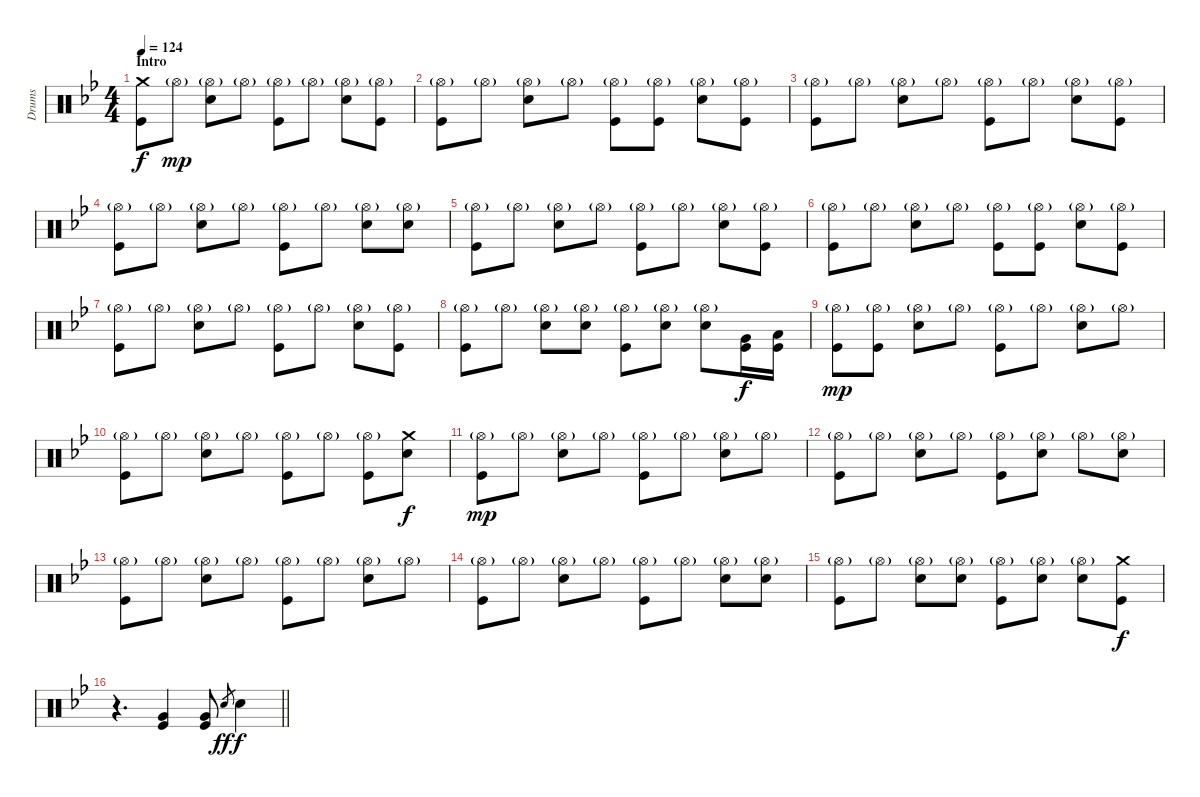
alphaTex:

\track ("Drums" "Drums") {instrument percussion}
\staff {score}
\articulation defaults
\ts (4 4)
\section ("" "Intro")
\tempo 124
\clef neutral
\ks gminor
("Crash medium (hit)" "Kick (hit)").8{dy f} "Hi-Hat (open)"{g}.8{dy mp} ("Hi-Hat (open)"{g} "Snare (hit) 2").8 "Hi-Hat (open)"{g}.8 ("Hi-Hat (open)"{g} "Kick (hit)").8 "Hi-Hat (open)"{g}.8 ("Hi-Hat (open)"{g} "Snare (hit) 2").8 ("Hi-Hat (open)"{g} "Kick (hit)").8 |
("Hi-Hat (open)"{g} "Kick (hit)").8 "Hi-Hat (open)"{g}.8 ("Hi-Hat (open)"{g} "Snare (hit) 2").8 "Hi-Hat (open)"{g}.8 ("Hi-Hat (open)"{g} "Kick (hit)").8 ("Hi-Hat (open)"{g} "Kick (hit)").8 ("Hi-Hat (open)"{g} "Snare (hit) 2").8 ("Hi-Hat (open)"{g} "Kick (hit)").8 |
("Hi-Hat (open)"{g} "Kick (hit)").8 "Hi-Hat (open)"{g}.8 ("Hi-Hat (open)"{g} "Snare (hit) 2").8 "Hi-Hat (open)"{g}.8 ("Hi-Hat (open)"{g} "Kick (hit)").8 "Hi-Hat (open)"{g}.8 ("Hi-Hat (open)"{g} "Snare (hit) 2").8 ("Hi-Hat (open)"{g} "Kick (hit)").8 |
("Hi-Hat (open)"{g} "Kick (hit)").8 "Hi-Hat (open)"{g}.8 ("Hi-Hat (open)"{g} "Snare (hit) 2").8 "Hi-Hat (open)"{g}.8 ("Hi-Hat (open)"{g} "Kick (hit)").8 "Hi-Hat (open)"{g}.8 ("Hi-Hat (open)"{g} "Snare (hit) 2").8 ("Hi-Hat (open)"{g} "Snare (hit) 2").8 |
("Hi-Hat (open)"{g} "Kick (hit)").8 "Hi-Hat (open)"{g}.8 ("Hi-Hat (open)"{g} "Snare (hit) 2").8 "Hi-Hat (open)"{g}.8 ("Hi-Hat (open)"{g} "Kick (hit)").8 "Hi-Hat (open)"{g}.8 ("Hi-Hat (open)"{g} "Snare (hit) 2").8 ("Hi-Hat (open)"{g} "Kick (hit)").8 |
("Hi-Hat (open)"{g} "Kick (hit)").8 "Hi-Hat (open)"{g}.8 ("Hi-Hat (open)"{g} "Snare (hit) 2").8 "Hi-Hat (open)"{g}.8 ("Hi-Hat (open)"{g} "Kick (hit)").8 ("Hi-Hat (open)"{g} "Kick (hit)").8 ("Hi-Hat (open)"{g} "Snare (hit) 2").8 ("Hi-Hat (open)"{g} "Kick (hit)").8 |
("Hi-Hat (open)"{g} "Kick (hit)").8 "Hi-Hat (open)"{g}.8 ("Hi-Hat (open)"{g} "Snare (hit) 2").8 "Hi-Hat (open)"{g}.8 ("Hi-Hat (open)"{g} "Kick (hit)").8 "Hi-Hat (open)"{g}.8 ("Hi-Hat (open)"{g} "Snare (hit) 2").8 ("Hi-Hat (open)"{g} "Kick (hit)").8 |
("Hi-Hat (open)"{g} "Kick (hit)").8 "Hi-Hat (open)"{g}.8 ("Hi-Hat (open)"{g} "Snare (hit) 2").8 ("Hi-Hat (open)"{g} "Snare (hit) 2").8 ("Hi-Hat (open)"{g} "Kick (hit)").8 ("Hi-Hat (open)"{g} "Snare (hit) 2").8 ("Hi-Hat (open)"{g} "Snare (hit) 2").8 ("Very Low Tom (hit)" "Kick (hit)").16{dy f} ("Low Floor Tom (hit)" "Kick (hit)").16 |
("Hi-Hat (open)"{g} "Kick (hit)").8{dy mp} ("Hi-Hat (open)"{g} "Kick (hit)").8 ("Hi-Hat (open)"{g} "Snare (hit) 2").8 "Hi-Hat (open)"{g}.8 ("Hi-Hat (open)"{g} "Kick (hit)").8 "Hi-Hat (open)"{g}.8 ("Hi-Hat (open)"{g} "Snare (hit) 2").8 "Hi-Hat (open)"{g}.8 |
("Hi-Hat (open)"{g} "Kick (hit)").8 "Hi-Hat (open)"{g}.8 ("Hi-Hat (open)"{g} "Snare (hit) 2").8 "Hi-Hat (open)"{g}.8 ("Hi-Hat (open)"{g} "Kick (hit)").8 "Hi-Hat (open)"{g}.8 ("Hi-Hat (open)"{g} "Kick (hit)").8 ("Crash medium (hit)" "Snare (hit) 2").8{dy f} |
("Hi-Hat (open)"{g} "Kick (hit)").8{dy mp} "Hi-Hat (open)"{g}.8 ("Hi-Hat (open)"{g} "Snare (hit) 2").8 "Hi-Hat (open)"{g}.8 ("Hi-Hat (open)"{g} "Kick (hit)").8 "Hi-Hat (open)"{g}.8 ("Hi-Hat (open)"{g} "Snare (hit) 2").8 "Hi-Hat (open)"{g}.8 |
("Hi-Hat (open)"{g} "Kick (hit)").8 "Hi-Hat (open)"{g}.8 ("Hi-Hat (open)"{g} "Snare (hit) 2").8 "Hi-Hat (open)"{g}.8 ("Hi-Hat (open)"{g} "Kick (hit)").8 ("Hi-Hat (open)"{g} "Snare (hit) 2").8 "Hi-Hat (open)"{g}.8 ("Hi-Hat (open)"{g} "Snare (hit) 2").8 |
("Hi-Hat (open)"{g} "Kick (hit)").8 "Hi-Hat (open)"{g}.8 ("Hi-Hat (open)"{g} "Snare (hit) 2").8 "Hi-Hat (open)"{g}.8 ("Hi-Hat (open)"{g} "Kick (hit)").8 "Hi-Hat (open)"{g}.8 ("Hi-Hat (open)"{g} "Snare (hit) 2").8 "Hi-Hat (open)"{g}.8 |
("Hi-Hat (open)"{g} "Kick (hit)").8 "Hi-Hat (open)"{g}.8 ("Hi-Hat (open)"{g} "Snare (hit) 2").8 "Hi-Hat (open)"{g}.8 ("Hi-Hat (open)"{g} "Kick (hit)").8 "Hi-Hat (open)"{g}.8 ("Hi-Hat (open)"{g} "Snare (hit) 2").8 ("Hi-Hat (open)"{g} "Snare (hit) 2").8 |
("Hi-Hat (open)"{g} "Kick (hit)").8 "Hi-Hat (open)"{g}.8 ("Hi-Hat (open)"{g} "Snare (hit) 2").8 ("Hi-Hat (open)"{g} "Snare (hit) 2").8 ("Hi-Hat (open)"{g} "Kick (hit)").8 ("Hi-Hat (open)"{g} "Snare (hit) 2").8 ("Hi-Hat (open)"{g} "Snare (hit) 2").8 ("Crash medium (hit)" "Kick (hit)").8{dy f} |
\barLineRight lightlight
r.4{d} ("Very Low Tom (hit)" "Kick (hit)").4 ("Very Low Tom (hit)" "Kick (hit)").8 "Snare (hit) 2"{h}.8{gr dy ff} "Snare (hit) 2".4{dy f}
